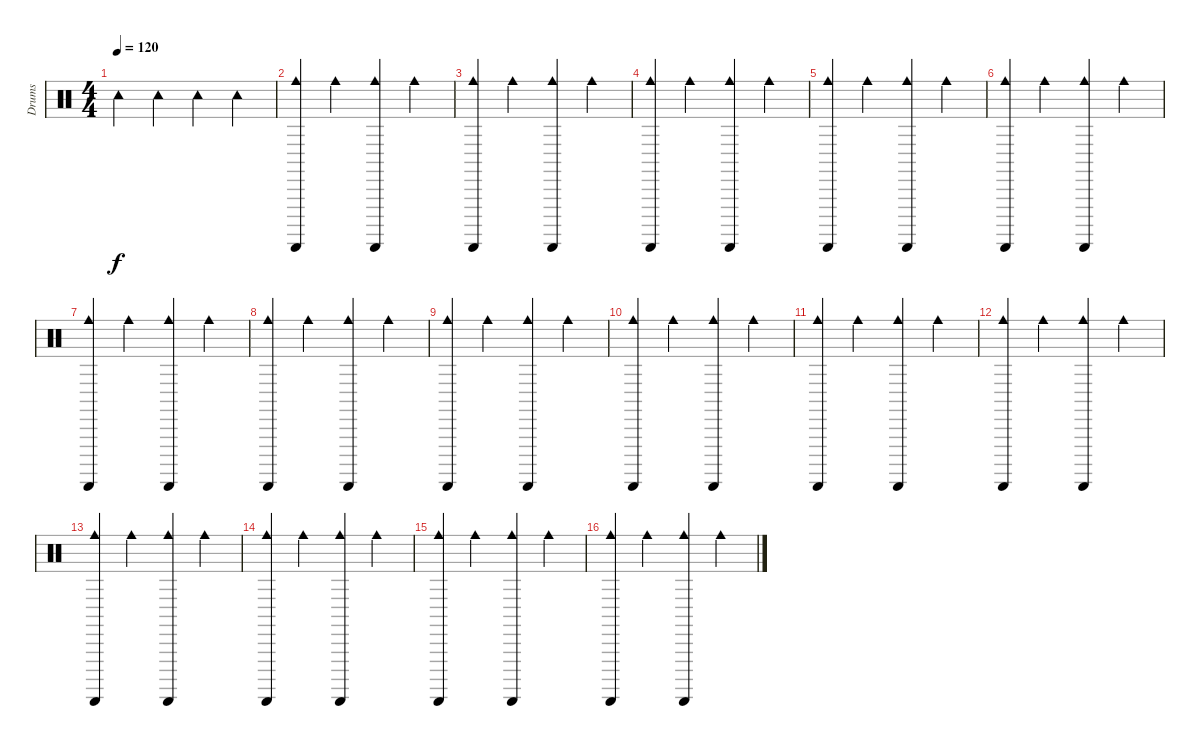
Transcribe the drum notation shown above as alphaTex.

\track ("Drums" "Drums") {instrument percussion}
\staff {score}
\articulation defaults
\ts (4 4)
\tempo 120
\clef neutral
\ks c "Tambourine (hit)".4{dy f} "Tambourine (hit)".4 "Tambourine (hit)".4 "Tambourine (hit)".4
|
("Cowbell medium (hit)" "Guiro (scrap-return)").4 "Cowbell medium (hit)".4 ("Cowbell medium (hit)" "Guiro (scrap-return)").4 "Cowbell medium (hit)".4 |
("Cowbell medium (hit)" "Guiro (scrap-return)").4 "Cowbell medium (hit)".4 ("Cowbell medium (hit)" "Guiro (scrap-return)").4 "Cowbell medium (hit)".4 |
("Cowbell medium (hit)" "Guiro (scrap-return)").4 "Cowbell medium (hit)".4 ("Cowbell medium (hit)" "Guiro (scrap-return)").4 "Cowbell medium (hit)".4 |
("Cowbell medium (hit)" "Guiro (scrap-return)").4 "Cowbell medium (hit)".4 ("Cowbell medium (hit)" "Guiro (scrap-return)").4 "Cowbell medium (hit)".4 |
("Cowbell medium (hit)" "Guiro (scrap-return)").4 "Cowbell medium (hit)".4 ("Cowbell medium (hit)" "Guiro (scrap-return)").4 "Cowbell medium (hit)".4 |
("Cowbell medium (hit)" "Guiro (scrap-return)").4 "Cowbell medium (hit)".4 ("Cowbell medium (hit)" "Guiro (scrap-return)").4 "Cowbell medium (hit)".4 |
("Cowbell medium (hit)" "Guiro (scrap-return)").4 "Cowbell medium (hit)".4 ("Cowbell medium (hit)" "Guiro (scrap-return)").4 "Cowbell medium (hit)".4 |
("Cowbell medium (hit)" "Guiro (scrap-return)").4 "Cowbell medium (hit)".4 ("Cowbell medium (hit)" "Guiro (scrap-return)").4 "Cowbell medium (hit)".4 |
("Cowbell medium (hit)" "Guiro (scrap-return)").4 "Cowbell medium (hit)".4 ("Cowbell medium (hit)" "Guiro (scrap-return)").4 "Cowbell medium (hit)".4 |
("Cowbell medium (hit)" "Guiro (scrap-return)").4 "Cowbell medium (hit)".4 ("Cowbell medium (hit)" "Guiro (scrap-return)").4 "Cowbell medium (hit)".4 |
("Cowbell medium (hit)" "Guiro (scrap-return)").4 "Cowbell medium (hit)".4 ("Cowbell medium (hit)" "Guiro (scrap-return)").4 "Cowbell medium (hit)".4 |
("Cowbell medium (hit)" "Guiro (scrap-return)").4 "Cowbell medium (hit)".4 ("Cowbell medium (hit)" "Guiro (scrap-return)").4 "Cowbell medium (hit)".4 |
("Cowbell medium (hit)" "Guiro (scrap-return)").4 "Cowbell medium (hit)".4 ("Cowbell medium (hit)" "Guiro (scrap-return)").4 "Cowbell medium (hit)".4 |
("Cowbell medium (hit)" "Guiro (scrap-return)").4 "Cowbell medium (hit)".4 ("Cowbell medium (hit)" "Guiro (scrap-return)").4 "Cowbell medium (hit)".4 |
("Cowbell medium (hit)" "Guiro (scrap-return)").4 "Cowbell medium (hit)".4 ("Cowbell medium (hit)" "Guiro (scrap-return)").4 "Cowbell medium (hit)".4
